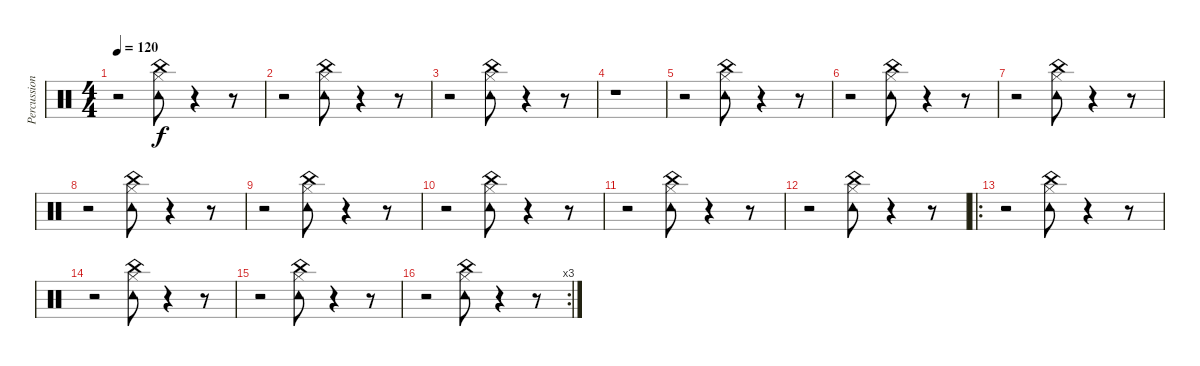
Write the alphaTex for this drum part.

\track ("Percussion " "Percussion") {instrument percussion}
\staff {score}
\articulation defaults
\ts (4 4)
\tempo 120
\clef neutral
\ks c
r.2{dy f} ("Tambourine (hit)" "China (hit)" "Hi-Hat (closed)").8 r.4 r.8 |
r.2 ("Tambourine (hit)" "China (hit)" "Hi-Hat (closed)").8 r.4 r.8 |
r.2 ("Tambourine (hit)" "China (hit)" "Hi-Hat (closed)").8 r.4 r.8 |
r.1 |
r.2 ("Tambourine (hit)" "China (hit)" "Hi-Hat (closed)").8 r.4 r.8 |
r.2 ("Tambourine (hit)" "China (hit)" "Hi-Hat (closed)").8 r.4 r.8 |
r.2 ("Tambourine (hit)" "China (hit)" "Hi-Hat (closed)").8 r.4 r.8 |
r.2 ("Tambourine (hit)" "China (hit)" "Hi-Hat (closed)").8 r.4 r.8 |
r.2 ("Tambourine (hit)" "China (hit)" "Hi-Hat (closed)").8 r.4 r.8 |
r.2 ("Tambourine (hit)" "China (hit)" "Hi-Hat (closed)").8 r.4 r.8 |
r.2 ("Tambourine (hit)" "China (hit)" "Hi-Hat (closed)").8 r.4 r.8 |
r.2 ("Tambourine (hit)" "China (hit)" "Hi-Hat (closed)").8 r.4 r.8 |
\ro
r.2 ("Tambourine (hit)" "China (hit)" "Hi-Hat (closed)").8 r.4 r.8 |
r.2 ("Tambourine (hit)" "China (hit)" "Hi-Hat (closed)").8 r.4 r.8 |
r.2 ("Tambourine (hit)" "China (hit)" "Hi-Hat (closed)").8 r.4 r.8 |
\rc 3
r.2 ("Tambourine (hit)" "China (hit)" "Hi-Hat (closed)").8 r.4 r.8
